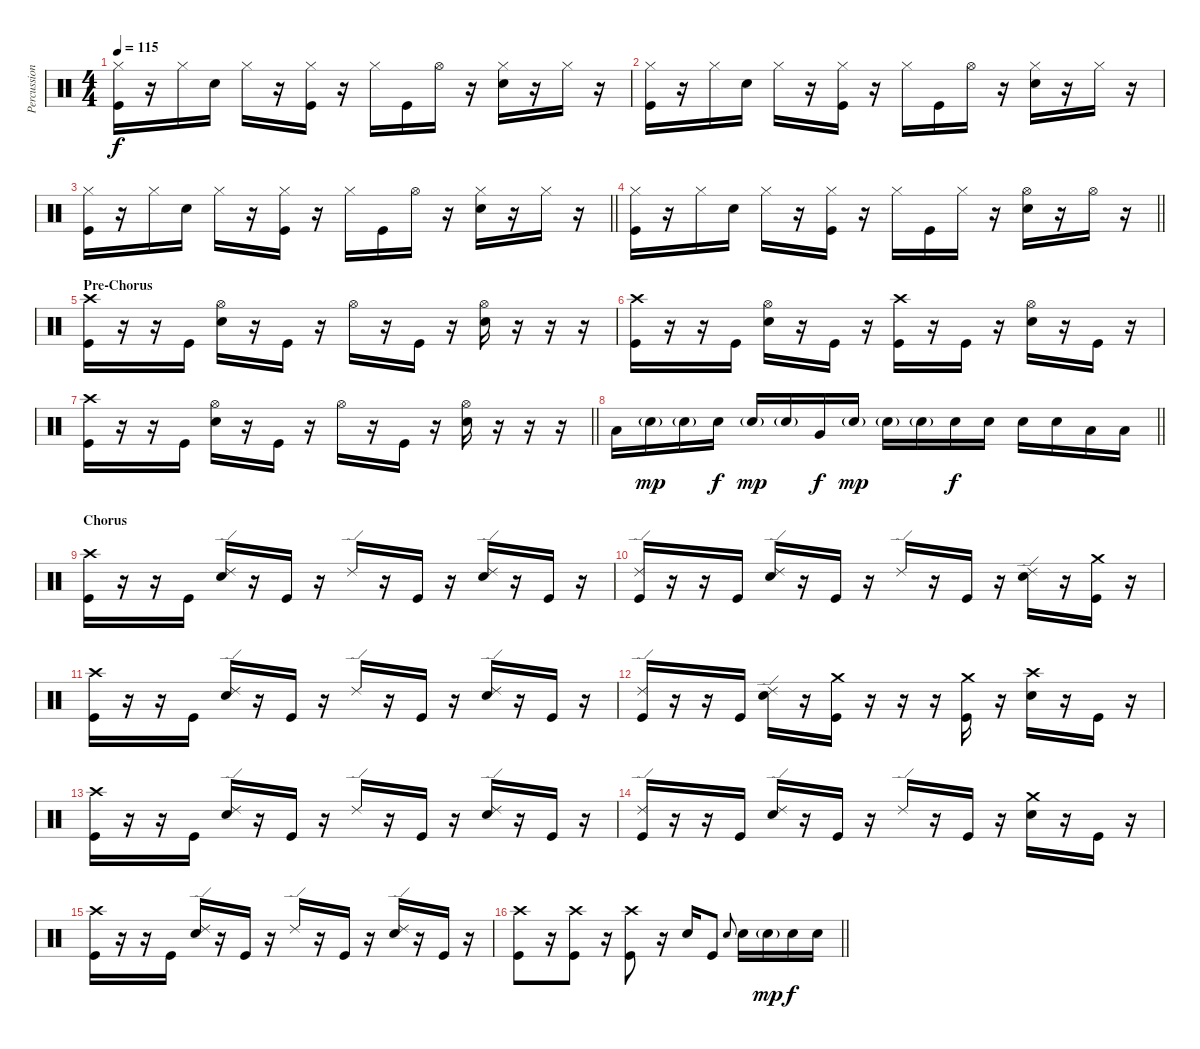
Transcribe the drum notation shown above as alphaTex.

\track ("Percussion" "Percussion") {instrument percussion}
\staff {score}
\articulation defaults
\ts (4 4)
\tempo 115
\clef neutral
\ks c
("Hi-Hat (closed)" "Kick (hit)").16{dy f} r.16 "Hi-Hat (closed)".16 "Electric Snare (hit)".16 "Hi-Hat (closed)".16 r.16 ("Hi-Hat (closed)" "Kick (hit)").16 r.16 "Hi-Hat (closed)".16 "Kick (hit)".16 "Hi-Hat (open)".16 r.16 ("Hi-Hat (closed)" "Electric Snare (hit)").16 r.16 "Hi-Hat (closed)".16 r.16 |
("Hi-Hat (closed)" "Kick (hit)").16 r.16 "Hi-Hat (closed)".16 "Electric Snare (hit)".16 "Hi-Hat (closed)".16 r.16 ("Hi-Hat (closed)" "Kick (hit)").16 r.16 "Hi-Hat (closed)".16 "Kick (hit)".16 "Hi-Hat (open)".16 r.16 ("Hi-Hat (closed)" "Electric Snare (hit)").16 r.16 "Hi-Hat (closed)".16 r.16 |
\barLineRight lightlight
("Hi-Hat (closed)" "Kick (hit)").16 r.16 "Hi-Hat (closed)".16 "Electric Snare (hit)".16 "Hi-Hat (closed)".16 r.16 ("Hi-Hat (closed)" "Kick (hit)").16 r.16 "Hi-Hat (closed)".16 "Kick (hit)".16 "Hi-Hat (open)".16 r.16 ("Hi-Hat (closed)" "Electric Snare (hit)").16 r.16 "Hi-Hat (closed)".16 r.16 |
\section ("" "")
\barLineRight lightlight
("Hi-Hat (closed)" "Kick (hit)").16 r.16 "Hi-Hat (closed)".16 "Electric Snare (hit)".16 "Hi-Hat (closed)".16 r.16 ("Hi-Hat (closed)" "Kick (hit)").16 r.16 "Hi-Hat (closed)".16 "Kick (hit)".16 "Hi-Hat (closed)".16 r.16 ("Hi-Hat (open)" "Electric Snare (hit)").16 r.16 "Hi-Hat (open)".16 r.16 |
\section ("" "Pre-Chorus")
("Crash high (hit)" "Kick (hit)").16 r.16 r.16 "Kick (hit)".16 ("Hi-Hat (open)" "Electric Snare (hit)").16 r.16 "Kick (hit)".16 r.16 "Hi-Hat (open)".16 r.16 "Kick (hit)".16 r.16 ("Hi-Hat (open)" "Electric Snare (hit)").16 r.16 r.16 r.16 |
("Crash high (hit)" "Kick (hit)").16 r.16 r.16 "Kick (hit)".16 ("Hi-Hat (open)" "Electric Snare (hit)").16 r.16 "Kick (hit)".16 r.16 ("Crash high (hit)" "Kick (hit)").16 r.16 "Kick (hit)".16 r.16 ("Hi-Hat (open)" "Electric Snare (hit)").16 r.16 "Kick (hit)".16 r.16 |
\barLineRight lightlight
("Crash high (hit)" "Kick (hit)").16 r.16 r.16 "Kick (hit)".16 ("Hi-Hat (open)" "Electric Snare (hit)").16 r.16 "Kick (hit)".16 r.16 "Hi-Hat (open)".16 r.16 "Kick (hit)".16 r.16 ("Hi-Hat (open)" "Electric Snare (hit)").16 r.16 r.16 r.16 |
\barLineRight lightlight "Low Tom (hit)".16 "Electric Snare (hit)"{g}.16{dy mp} "Electric Snare (hit)"{g}.16 "Electric Snare (hit)".16{dy f} "Electric Snare (hit)"{g}.16{dy mp} "Electric Snare (hit)"{g}.16 "Very Low Tom (hit)".16{dy f} "Electric Snare (hit)"{g}.16{dy mp} "Electric Snare (hit)"{g}.16 "Electric Snare (hit)"{g}.16 "Electric Snare (hit)".16{dy f} "Electric Snare (hit)".16 "Electric Snare (hit)".16 "Electric Snare (hit)".16 "Low Floor Tom (hit)".16 "Low Floor Tom (hit)".16
|
\section ("" "Chorus")
("Crash high (hit)" "Kick (hit)").16 r.16 r.16 "Kick (hit)".16 ("Ride (edge) 2" "Electric Snare (hit)").16 r.16 "Kick (hit)".16 r.16 "Ride (edge) 2".16 r.16 "Kick (hit)".16 r.16 ("Ride (edge) 2" "Electric Snare (hit)").16 r.16 "Kick (hit)".16 r.16 |
("Ride (edge) 2" "Kick (hit)").16 r.16 r.16 "Kick (hit)".16 ("Ride (edge) 2" "Electric Snare (hit)").16 r.16 "Kick (hit)".16 r.16 "Ride (edge) 2".16 r.16 "Kick (hit)".16 r.16 ("Ride (edge) 2" "Electric Snare (hit)").16 r.16 ("Crash medium (hit)" "Kick (hit)").16 r.16 |
("Crash high (hit)" "Kick (hit)").16 r.16 r.16 "Kick (hit)".16 ("Ride (edge) 2" "Electric Snare (hit)").16 r.16 "Kick (hit)".16 r.16 "Ride (edge) 2".16 r.16 "Kick (hit)".16 r.16 ("Ride (edge) 2" "Electric Snare (hit)").16 r.16 "Kick (hit)".16 r.16 |
("Ride (edge) 2" "Kick (hit)").16 r.16 r.16 "Kick (hit)".16 ("Ride (edge) 2" "Electric Snare (hit)").16 r.16 ("Crash medium (hit)" "Kick (hit)").16 r.16 r.16 r.16 ("Crash medium (hit)" "Kick (hit)").16 r.16 ("Crash high (hit)" "Electric Snare (hit)").16 r.16 "Kick (hit)".16 r.16 |
("Crash high (hit)" "Kick (hit)").16 r.16 r.16 "Kick (hit)".16 ("Ride (edge) 2" "Electric Snare (hit)").16 r.16 "Kick (hit)".16 r.16 "Ride (edge) 2".16 r.16 "Kick (hit)".16 r.16 ("Ride (edge) 2" "Electric Snare (hit)").16 r.16 "Kick (hit)".16 r.16 |
("Ride (edge) 2" "Kick (hit)").16 r.16 r.16 "Kick (hit)".16 ("Ride (edge) 2" "Electric Snare (hit)").16 r.16 "Kick (hit)".16 r.16 "Ride (edge) 2".16 r.16 "Kick (hit)".16 r.16 ("Crash medium (hit)" "Electric Snare (hit)").16 r.16 "Kick (hit)".16 r.16 |
("Crash high (hit)" "Kick (hit)").16 r.16 r.16 "Kick (hit)".16 ("Ride (edge) 2" "Electric Snare (hit)").16 r.16 "Kick (hit)".16 r.16 "Ride (edge) 2".16 r.16 "Kick (hit)".16 r.16 ("Ride (edge) 2" "Electric Snare (hit)").16 r.16 "Kick (hit)".16 r.16 |
\barLineRight lightlight
("Crash high (hit)" "Kick (hit)").8 r.16 ("Crash high (hit)" "Kick (hit)").8 r.16 ("Crash high (hit)" "Kick (hit)").8 r.16 "Electric Snare (hit)".16 "Kick (hit)".8 "Electric Snare (hit)".8{gr onbeat} "Electric Snare (hit)".16 "Electric Snare (hit)"{g}.16{dy mp} "Electric Snare (hit)".16{dy f} "Electric Snare (hit)".16
